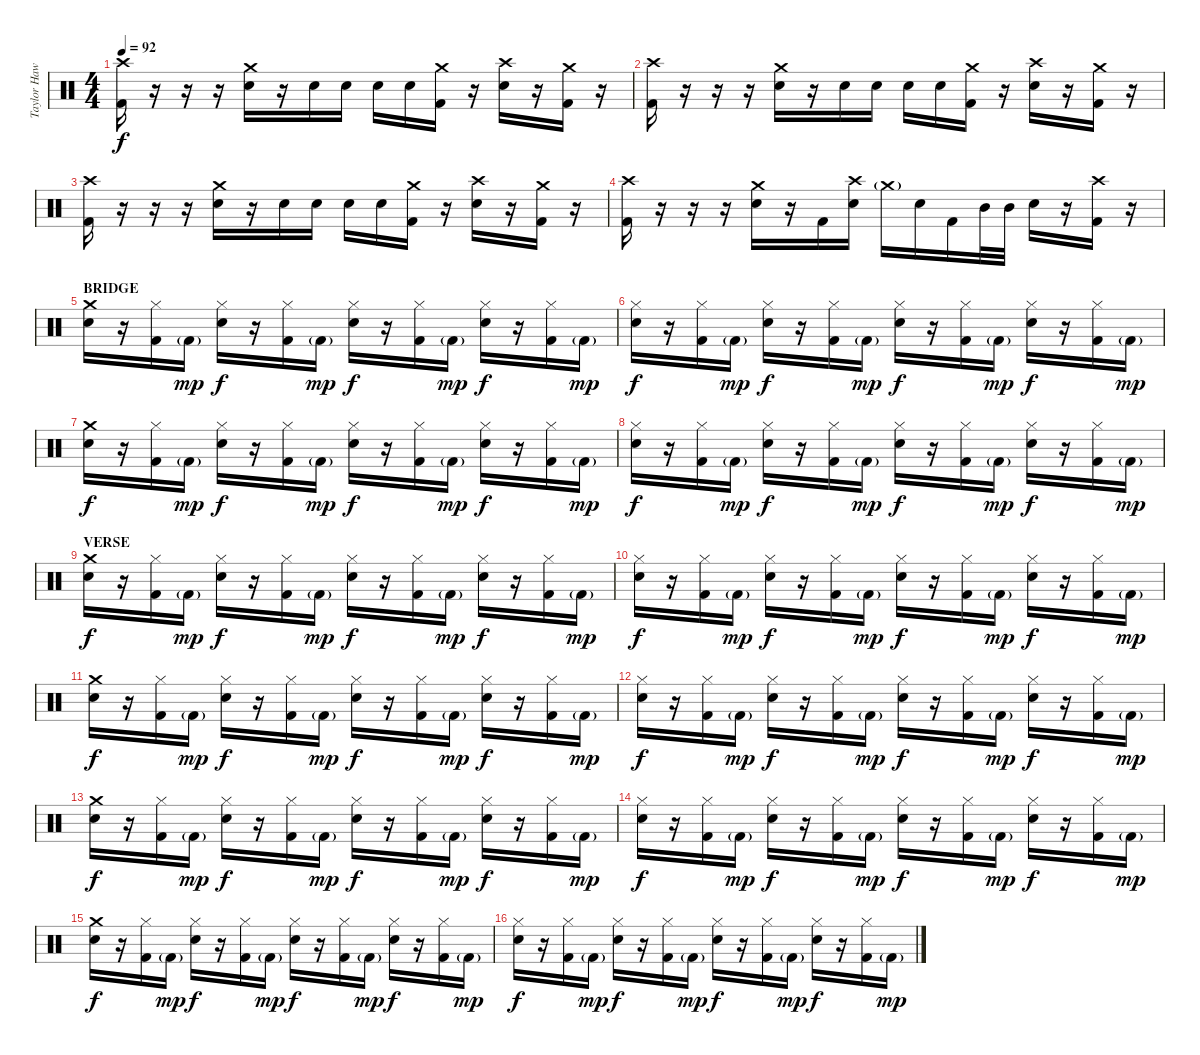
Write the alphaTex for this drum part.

\track ("Taylor Hawkins (Drums)" "Taylor Haw") {instrument percussion}
\staff {score}
\articulation defaults
\ts (4 4)
\tempo 92
\clef neutral
\ks c
("Crash high (hit)" "Kick (hit) 2").16{dy f} r.16 r.16 r.16 ("Crash medium (hit)" "Electric Snare (hit)").16 r.16 "Electric Snare (hit)".16 "Electric Snare (hit)".16 "Electric Snare (hit)".16 "Electric Snare (hit)".16 ("Crash medium (hit)" "Kick (hit) 2").16 r.16 ("Crash high (hit)" "Electric Snare (hit)").16 r.16 ("Crash medium (hit)" "Kick (hit) 2").16 r.16 |
("Crash high (hit)" "Kick (hit) 2").16 r.16 r.16 r.16 ("Crash medium (hit)" "Electric Snare (hit)").16 r.16 "Electric Snare (hit)".16 "Electric Snare (hit)".16 "Electric Snare (hit)".16 "Electric Snare (hit)".16 ("Crash medium (hit)" "Kick (hit) 2").16 r.16 ("Crash high (hit)" "Electric Snare (hit)").16 r.16 ("Crash medium (hit)" "Kick (hit) 2").16 r.16 |
("Crash high (hit)" "Kick (hit) 2").16 r.16 r.16 r.16 ("Crash medium (hit)" "Electric Snare (hit)").16 r.16 "Electric Snare (hit)".16 "Electric Snare (hit)".16 "Electric Snare (hit)".16 "Electric Snare (hit)".16 ("Crash medium (hit)" "Kick (hit) 2").16 r.16 ("Crash high (hit)" "Electric Snare (hit)").16 r.16 ("Crash medium (hit)" "Kick (hit) 2").16 r.16 |
("Crash high (hit)" "Kick (hit) 2").16 r.16 r.16 r.16 ("Crash medium (hit)" "Electric Snare (hit)").16 r.16 "Kick (hit) 2".16 ("Crash high (hit)" "Electric Snare (hit)").16 "Crash medium (hit)"{g}.16 "Electric Snare (hit)".16 "Kick (hit) 2".16 "Mid Tom (hit)".32 "Mid Tom (hit)".32 "Electric Snare (hit)".16 r.16 ("Crash high (hit)" "Kick (hit) 2").16 r.16 |
\section ("" "BRIDGE")
("Crash medium (hit)" "Electric Snare (hit)").16 r.16 ("Hi-Hat (closed)" "Kick (hit) 2").16 "Kick (hit) 2"{g}.16{dy mp} ("Hi-Hat (closed)" "Electric Snare (hit)").16{dy f} r.16 ("Hi-Hat (closed)" "Kick (hit) 2").16 "Kick (hit) 2"{g}.16{dy mp} ("Hi-Hat (closed)" "Electric Snare (hit)").16{dy f} r.16 ("Hi-Hat (closed)" "Kick (hit) 2").16 "Kick (hit) 2"{g}.16{dy mp} ("Hi-Hat (closed)" "Electric Snare (hit)").16{dy f} r.16 ("Hi-Hat (closed)" "Kick (hit) 2").16 "Kick (hit) 2"{g}.16{dy mp} |
("Hi-Hat (closed)" "Electric Snare (hit)").16{dy f} r.16 ("Hi-Hat (closed)" "Kick (hit) 2").16 "Kick (hit) 2"{g}.16{dy mp} ("Hi-Hat (closed)" "Electric Snare (hit)").16{dy f} r.16 ("Hi-Hat (closed)" "Kick (hit) 2").16 "Kick (hit) 2"{g}.16{dy mp} ("Hi-Hat (closed)" "Electric Snare (hit)").16{dy f} r.16 ("Hi-Hat (closed)" "Kick (hit) 2").16 "Kick (hit) 2"{g}.16{dy mp} ("Hi-Hat (closed)" "Electric Snare (hit)").16{dy f} r.16 ("Hi-Hat (closed)" "Kick (hit) 2").16 "Kick (hit) 2"{g}.16{dy mp} |
("Crash medium (hit)" "Electric Snare (hit)").16{dy f} r.16 ("Hi-Hat (closed)" "Kick (hit) 2").16 "Kick (hit) 2"{g}.16{dy mp} ("Hi-Hat (closed)" "Electric Snare (hit)").16{dy f} r.16 ("Hi-Hat (closed)" "Kick (hit) 2").16 "Kick (hit) 2"{g}.16{dy mp} ("Hi-Hat (closed)" "Electric Snare (hit)").16{dy f} r.16 ("Hi-Hat (closed)" "Kick (hit) 2").16 "Kick (hit) 2"{g}.16{dy mp} ("Hi-Hat (closed)" "Electric Snare (hit)").16{dy f} r.16 ("Hi-Hat (closed)" "Kick (hit) 2").16 "Kick (hit) 2"{g}.16{dy mp} |
("Hi-Hat (closed)" "Electric Snare (hit)").16{dy f} r.16 ("Hi-Hat (closed)" "Kick (hit) 2").16 "Kick (hit) 2"{g}.16{dy mp} ("Hi-Hat (closed)" "Electric Snare (hit)").16{dy f} r.16 ("Hi-Hat (closed)" "Kick (hit) 2").16 "Kick (hit) 2"{g}.16{dy mp} ("Hi-Hat (closed)" "Electric Snare (hit)").16{dy f} r.16 ("Hi-Hat (closed)" "Kick (hit) 2").16 "Kick (hit) 2"{g}.16{dy mp} ("Hi-Hat (closed)" "Electric Snare (hit)").16{dy f} r.16 ("Hi-Hat (closed)" "Kick (hit) 2").16 "Kick (hit) 2"{g}.16{dy mp} |
\section ("" "VERSE")
("Crash medium (hit)" "Electric Snare (hit)").16{dy f} r.16 ("Hi-Hat (closed)" "Kick (hit) 2").16 "Kick (hit) 2"{g}.16{dy mp} ("Hi-Hat (closed)" "Electric Snare (hit)").16{dy f} r.16 ("Hi-Hat (closed)" "Kick (hit) 2").16 "Kick (hit) 2"{g}.16{dy mp} ("Hi-Hat (closed)" "Electric Snare (hit)").16{dy f} r.16 ("Hi-Hat (closed)" "Kick (hit) 2").16 "Kick (hit) 2"{g}.16{dy mp} ("Hi-Hat (closed)" "Electric Snare (hit)").16{dy f} r.16 ("Hi-Hat (closed)" "Kick (hit) 2").16 "Kick (hit) 2"{g}.16{dy mp} |
("Hi-Hat (closed)" "Electric Snare (hit)").16{dy f} r.16 ("Hi-Hat (closed)" "Kick (hit) 2").16 "Kick (hit) 2"{g}.16{dy mp} ("Hi-Hat (closed)" "Electric Snare (hit)").16{dy f} r.16 ("Hi-Hat (closed)" "Kick (hit) 2").16 "Kick (hit) 2"{g}.16{dy mp} ("Hi-Hat (closed)" "Electric Snare (hit)").16{dy f} r.16 ("Hi-Hat (closed)" "Kick (hit) 2").16 "Kick (hit) 2"{g}.16{dy mp} ("Hi-Hat (closed)" "Electric Snare (hit)").16{dy f} r.16 ("Hi-Hat (closed)" "Kick (hit) 2").16 "Kick (hit) 2"{g}.16{dy mp} |
("Crash medium (hit)" "Electric Snare (hit)").16{dy f} r.16 ("Hi-Hat (closed)" "Kick (hit) 2").16 "Kick (hit) 2"{g}.16{dy mp} ("Hi-Hat (closed)" "Electric Snare (hit)").16{dy f} r.16 ("Hi-Hat (closed)" "Kick (hit) 2").16 "Kick (hit) 2"{g}.16{dy mp} ("Hi-Hat (closed)" "Electric Snare (hit)").16{dy f} r.16 ("Hi-Hat (closed)" "Kick (hit) 2").16 "Kick (hit) 2"{g}.16{dy mp} ("Hi-Hat (closed)" "Electric Snare (hit)").16{dy f} r.16 ("Hi-Hat (closed)" "Kick (hit) 2").16 "Kick (hit) 2"{g}.16{dy mp} |
("Hi-Hat (closed)" "Electric Snare (hit)").16{dy f} r.16 ("Hi-Hat (closed)" "Kick (hit) 2").16 "Kick (hit) 2"{g}.16{dy mp} ("Hi-Hat (closed)" "Electric Snare (hit)").16{dy f} r.16 ("Hi-Hat (closed)" "Kick (hit) 2").16 "Kick (hit) 2"{g}.16{dy mp} ("Hi-Hat (closed)" "Electric Snare (hit)").16{dy f} r.16 ("Hi-Hat (closed)" "Kick (hit) 2").16 "Kick (hit) 2"{g}.16{dy mp} ("Hi-Hat (closed)" "Electric Snare (hit)").16{dy f} r.16 ("Hi-Hat (closed)" "Kick (hit) 2").16 "Kick (hit) 2"{g}.16{dy mp} |
("Crash medium (hit)" "Electric Snare (hit)").16{dy f} r.16 ("Hi-Hat (closed)" "Kick (hit) 2").16 "Kick (hit) 2"{g}.16{dy mp} ("Hi-Hat (closed)" "Electric Snare (hit)").16{dy f} r.16 ("Hi-Hat (closed)" "Kick (hit) 2").16 "Kick (hit) 2"{g}.16{dy mp} ("Hi-Hat (closed)" "Electric Snare (hit)").16{dy f} r.16 ("Hi-Hat (closed)" "Kick (hit) 2").16 "Kick (hit) 2"{g}.16{dy mp} ("Hi-Hat (closed)" "Electric Snare (hit)").16{dy f} r.16 ("Hi-Hat (closed)" "Kick (hit) 2").16 "Kick (hit) 2"{g}.16{dy mp} |
("Hi-Hat (closed)" "Electric Snare (hit)").16{dy f} r.16 ("Hi-Hat (closed)" "Kick (hit) 2").16 "Kick (hit) 2"{g}.16{dy mp} ("Hi-Hat (closed)" "Electric Snare (hit)").16{dy f} r.16 ("Hi-Hat (closed)" "Kick (hit) 2").16 "Kick (hit) 2"{g}.16{dy mp} ("Hi-Hat (closed)" "Electric Snare (hit)").16{dy f} r.16 ("Hi-Hat (closed)" "Kick (hit) 2").16 "Kick (hit) 2"{g}.16{dy mp} ("Hi-Hat (closed)" "Electric Snare (hit)").16{dy f} r.16 ("Hi-Hat (closed)" "Kick (hit) 2").16 "Kick (hit) 2"{g}.16{dy mp} |
("Crash medium (hit)" "Electric Snare (hit)").16{dy f} r.16 ("Hi-Hat (closed)" "Kick (hit) 2").16 "Kick (hit) 2"{g}.16{dy mp} ("Hi-Hat (closed)" "Electric Snare (hit)").16{dy f} r.16 ("Hi-Hat (closed)" "Kick (hit) 2").16 "Kick (hit) 2"{g}.16{dy mp} ("Hi-Hat (closed)" "Electric Snare (hit)").16{dy f} r.16 ("Hi-Hat (closed)" "Kick (hit) 2").16 "Kick (hit) 2"{g}.16{dy mp} ("Hi-Hat (closed)" "Electric Snare (hit)").16{dy f} r.16 ("Hi-Hat (closed)" "Kick (hit) 2").16 "Kick (hit) 2"{g}.16{dy mp} |
("Hi-Hat (closed)" "Electric Snare (hit)").16{dy f} r.16 ("Hi-Hat (closed)" "Kick (hit) 2").16 "Kick (hit) 2"{g}.16{dy mp} ("Hi-Hat (closed)" "Electric Snare (hit)").16{dy f} r.16 ("Hi-Hat (closed)" "Kick (hit) 2").16 "Kick (hit) 2"{g}.16{dy mp} ("Hi-Hat (closed)" "Electric Snare (hit)").16{dy f} r.16 ("Hi-Hat (closed)" "Kick (hit) 2").16 "Kick (hit) 2"{g}.16{dy mp} ("Hi-Hat (closed)" "Electric Snare (hit)").16{dy f} r.16 ("Hi-Hat (closed)" "Kick (hit) 2").16 "Kick (hit) 2"{g}.16{dy mp}
